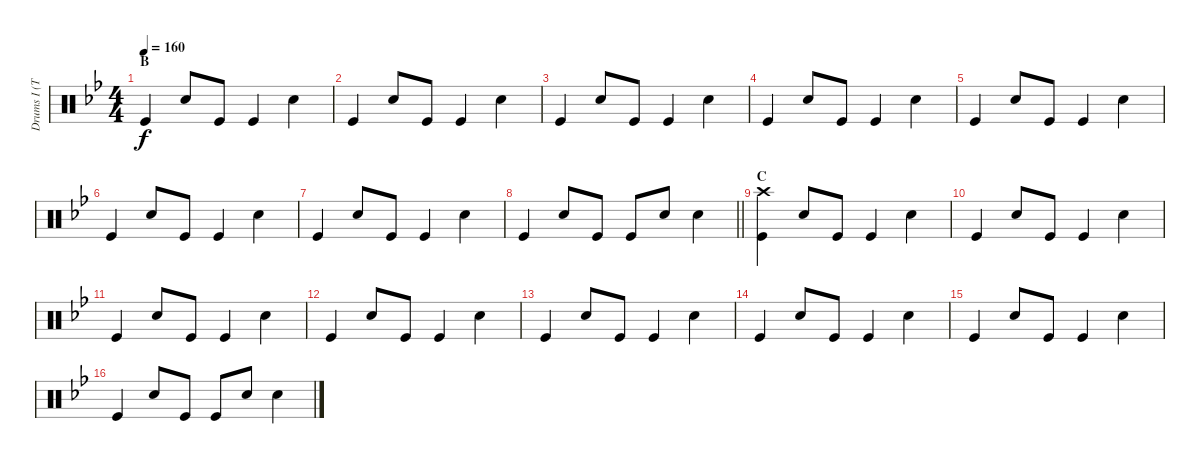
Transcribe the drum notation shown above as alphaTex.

\track ("Drums I (Tainaka Ritsu)" "Drums I (T") {instrument percussion}
\staff {score}
\articulation defaults
\ts (4 4)
\section ("" "B")
\tempo 160
\clef neutral
\ks bb "Kick (hit)".4{dy f} "Snare (hit) 2".8 "Kick (hit)".8 "Kick (hit)".4 "Snare (hit) 2".4
|
"Kick (hit)".4 "Snare (hit) 2".8 "Kick (hit)".8 "Kick (hit)".4 "Snare (hit) 2".4 |
"Kick (hit)".4 "Snare (hit) 2".8 "Kick (hit)".8 "Kick (hit)".4 "Snare (hit) 2".4 |
"Kick (hit)".4 "Snare (hit) 2".8 "Kick (hit)".8 "Kick (hit)".4 "Snare (hit) 2".4 |
"Kick (hit)".4 "Snare (hit) 2".8 "Kick (hit)".8 "Kick (hit)".4 "Snare (hit) 2".4 |
"Kick (hit)".4 "Snare (hit) 2".8 "Kick (hit)".8 "Kick (hit)".4 "Snare (hit) 2".4 |
"Kick (hit)".4 "Snare (hit) 2".8 "Kick (hit)".8 "Kick (hit)".4 "Snare (hit) 2".4 |
\barLineRight lightlight "Kick (hit)".4 "Snare (hit) 2".8 "Kick (hit)".8 "Kick (hit)".8 "Snare (hit) 2".8 "Snare (hit) 2".4
|
\section ("" "C")
("Crash high (hit)" "Kick (hit)").4 "Snare (hit) 2".8 "Kick (hit)".8 "Kick (hit)".4 "Snare (hit) 2".4 |
"Kick (hit)".4 "Snare (hit) 2".8 "Kick (hit)".8 "Kick (hit)".4 "Snare (hit) 2".4 |
"Kick (hit)".4 "Snare (hit) 2".8 "Kick (hit)".8 "Kick (hit)".4 "Snare (hit) 2".4 |
"Kick (hit)".4 "Snare (hit) 2".8 "Kick (hit)".8 "Kick (hit)".4 "Snare (hit) 2".4 |
"Kick (hit)".4 "Snare (hit) 2".8 "Kick (hit)".8 "Kick (hit)".4 "Snare (hit) 2".4 |
"Kick (hit)".4 "Snare (hit) 2".8 "Kick (hit)".8 "Kick (hit)".4 "Snare (hit) 2".4 |
"Kick (hit)".4 "Snare (hit) 2".8 "Kick (hit)".8 "Kick (hit)".4 "Snare (hit) 2".4 |
"Kick (hit)".4 "Snare (hit) 2".8 "Kick (hit)".8 "Kick (hit)".8 "Snare (hit) 2".8 "Snare (hit) 2".4
